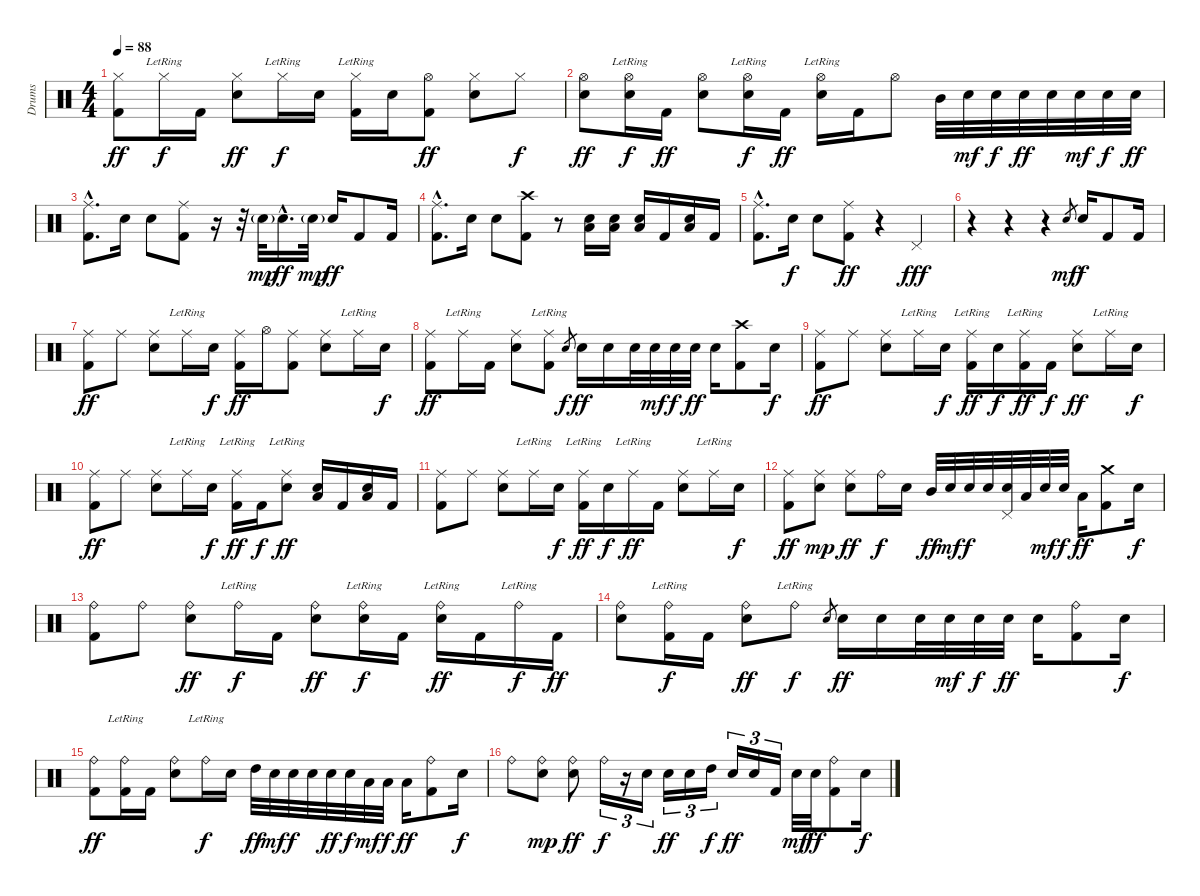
\track ("Drums" "Drums") {instrument percussion}
\staff {score}
\articulation defaults
\ts (4 4)
\tempo 88
\clef neutral
\ks c
("Hi-Hat (closed)" "Kick (hit) 2").8{dy ff} "Hi-Hat (closed)"{lr}.16{dy f} "Kick (hit) 2".16 ("Hi-Hat (closed)" "Electric Snare (hit)").8{dy ff} "Hi-Hat (closed)"{lr}.16{dy f} "Electric Snare (hit)".16 ("Hi-Hat (closed)"{lr} "Kick (hit) 2").16 "Electric Snare (hit)".16 ("Hi-Hat (open)" "Kick (hit) 2").8{dy ff} ("Hi-Hat (closed)" "Electric Snare (hit)").8 "Hi-Hat (closed)".8{dy f} |
("Hi-Hat (open)" "Electric Snare (hit)").8{dy ff} ("Hi-Hat (open)"{lr} "Electric Snare (hit)").16{dy f} "Kick (hit) 2".16{dy ff} ("Hi-Hat (open)" "Electric Snare (hit)").8 ("Hi-Hat (open)"{lr} "Electric Snare (hit)").16{dy f} "Kick (hit) 2".16{dy ff} ("Hi-Hat (open)"{lr} "Electric Snare (hit)").16 "Kick (hit) 2".16 "Hi-Hat (open)".8 "Mid Tom (hit)".32 "Electric Snare (hit)".32{dy mf} "Electric Snare (hit)".32{dy f} "Electric Snare (hit)".32{dy ff} "Electric Snare (hit)".32 "Electric Snare (hit)".32{dy mf} "Electric Snare (hit)".32{dy f} "Electric Snare (hit)".32{dy ff} |
("Ride (middle)"{hac} "Kick (hit) 2"{hac}).8{d} "Electric Snare (hit)".16 "Electric Snare (hit)".8 ("Ride (middle)" "Kick (hit) 2").8 r.16 r.32 "Electric Snare (hit)"{g}.32{dy mp} "Electric Snare (hit)"{hac}.16{d dy ff} "Electric Snare (hit)"{g}.32{dy mp} "Electric Snare (hit)".16{dy ff} "Kick (hit) 2".8 "Kick (hit) 2".16 |
("Ride (middle)"{hac} "Kick (hit) 2"{hac}).8{d} "Electric Snare (hit)".16 "Electric Snare (hit)".8 ("Crash high (hit)" "Kick (hit) 2").8 r.8 ("Electric Snare (hit)" "Low Tom (hit)").16 ("Electric Snare (hit)" "Low Tom (hit)").16 ("Electric Snare (hit)" "Low Tom (hit)").16 "Kick (hit) 2".16 ("Electric Snare (hit)" "Low Tom (hit)").16 "Kick (hit) 2".16 |
("Ride (middle)"{hac} "Kick (hit) 2"{hac}).8{d} "Electric Snare (hit)".16{dy f} "Electric Snare (hit)".8 ("Ride (middle)" "Kick (hit) 2").8{dy ff} r.4 "Pedal Hi-Hat (hit)".4{dy fff} |
r.4 r.4 r.4 "Electric Snare (hit)".8{gr dy mf} "Electric Snare (hit)".16{dy f} "Kick (hit) 2".8 "Kick (hit) 2".16 |
("Ride (middle)" "Kick (hit) 2").8{dy ff} "Ride (middle)".8 ("Ride (middle)" "Electric Snare (hit)").8 "Ride (middle)"{lr}.16 "Electric Snare (hit)".16{dy f} ("Ride (middle)" "Kick (hit) 2").16{dy ff} "Hi-Hat (open)".16 ("Ride (middle)" "Kick (hit) 2").8 ("Ride (middle)" "Electric Snare (hit)").8 "Ride (middle)"{lr}.16 "Electric Snare (hit)".16{dy f} |
("Ride (middle)" "Kick (hit) 2").8{dy ff} "Ride (middle)"{lr}.16 "Kick (hit) 2".16 ("Ride (middle)" "Electric Snare (hit)").8 ("Ride (middle)"{lr} "Kick (hit) 2").8 "Electric Snare (hit)".8{gr dy f} "Electric Snare (hit)".16{dy ff} "Electric Snare (hit)".16 "Electric Snare (hit)".32 "Electric Snare (hit)".32{dy mf} "Electric Snare (hit)".32{dy f} "Electric Snare (hit)".32{dy ff} "Electric Snare (hit)".16 ("Crash high (hit)" "Kick (hit) 2").8 "Electric Snare (hit)".16{dy f} |
("Ride (middle)" "Kick (hit) 2").8{dy ff} "Ride (middle)".8 ("Ride (middle)" "Electric Snare (hit)").8 "Ride (middle)"{lr}.16 "Electric Snare (hit)".16{dy f} ("Ride (middle)"{lr} "Kick (hit) 2").16{dy ff} "Electric Snare (hit)".16{dy f} ("Ride (middle)"{lr} "Kick (hit) 2").16{dy ff} "Kick (hit) 2".16{dy f} ("Ride (middle)" "Electric Snare (hit)").8{dy ff} "Ride (middle)"{lr}.16 "Electric Snare (hit)".16{dy f} |
("Ride (middle)" "Kick (hit) 2").8{dy ff} "Ride (middle)".8 ("Ride (middle)" "Electric Snare (hit)").8 "Ride (middle)"{lr}.16 "Electric Snare (hit)".16{dy f} ("Ride (middle)"{lr} "Kick (hit) 2").16{dy ff} "Kick (hit) 2".16{dy f} ("Ride (middle)"{lr} "Electric Snare (hit)").8{dy ff} ("Electric Snare (hit)" "Low Tom (hit)").16 "Kick (hit) 2".16 ("Electric Snare (hit)" "Low Tom (hit)").16 "Kick (hit) 2".16 |
("Ride (middle)" "Kick (hit) 2").8 "Ride (middle)".8 ("Ride (middle)" "Electric Snare (hit)").8 "Ride (middle)"{lr}.16 "Electric Snare (hit)".16{dy f} ("Ride (middle)"{lr} "Kick (hit) 2").16{dy ff} "Electric Snare (hit)".16{dy f} "Ride (middle)"{lr}.16{dy ff} "Kick (hit) 2".16 ("Ride (middle)" "Electric Snare (hit)").8 "Ride (middle)"{lr}.16 "Electric Snare (hit)".16{dy f} |
("Ride (middle)" "Kick (hit) 2").8{dy ff} ("Ride (middle)" "Electric Snare (hit)").8{dy mp} ("Ride (middle)" "Electric Snare (hit)").8{dy ff} "Ride (bell)".16{dy f} "Electric Snare (hit)".16 "Mid Tom (hit)".32{dy ff} "Electric Snare (hit)".32{dy mf} "Electric Snare (hit)".32{dy f} "Electric Snare (hit)".32 ("Electric Snare (hit)" "Pedal Hi-Hat (hit)").32 "Low Tom (hit)".32 "Electric Snare (hit)".32{dy mf} "Electric Snare (hit)".32{dy f} "Low Tom (hit)".16{dy ff} ("Crash medium (hit)" "Kick (hit) 2").8 "Electric Snare (hit)".16{dy f} |
("Ride (bell)" "Kick (hit) 2").8 "Ride (bell)".8 ("Ride (bell)" "Electric Snare (hit)").8{dy ff} "Ride (bell)"{lr}.16{dy f} "Kick (hit) 2".16 ("Ride (bell)" "Electric Snare (hit)").8{dy ff} ("Ride (bell)"{lr} "Electric Snare (hit)").16{dy f} "Kick (hit) 2".16 ("Ride (bell)"{lr} "Electric Snare (hit)").16{dy ff} "Kick (hit) 2".16 "Ride (bell)"{lr}.16{dy f} "Kick (hit) 2".16{dy ff} |
("Ride (bell)" "Electric Snare (hit)").8 ("Ride (bell)"{lr} "Kick (hit) 2").16{dy f} "Kick (hit) 2".16 ("Ride (bell)" "Electric Snare (hit)").8{dy ff} "Ride (bell)"{lr}.8{dy f} "Electric Snare (hit)".8{gr} "Electric Snare (hit)".16{dy ff} "Electric Snare (hit)".16 "Electric Snare (hit)".32 "Electric Snare (hit)".32{dy mf} "Electric Snare (hit)".32{dy f} "Electric Snare (hit)".32{dy ff} "Electric Snare (hit)".16 ("Ride (bell)" "Kick (hit) 2").8 "Electric Snare (hit)".16{dy f} |
("Ride (bell)" "Kick (hit) 2").8{dy ff} ("Ride (bell)"{lr} "Kick (hit) 2").16 "Kick (hit) 2".16 ("Ride (bell)" "Electric Snare (hit)").8 "Ride (bell)"{lr}.16{dy f} "Electric Snare (hit)".16 "High Tom (hit)".32{dy ff} "Electric Snare (hit)".32{dy mf} "Electric Snare (hit)".32{dy f} "Electric Snare (hit)".32 "Electric Snare (hit)".32{dy ff} "Electric Snare (hit)".32{dy f} "Low Tom (hit)".32{dy mf} "Low Tom (hit)".32{dy f} "Low Tom (hit)".16{dy ff} ("Ride (bell)" "Kick (hit) 2").8 "Electric Snare (hit)".16{dy f} |
"Ride (bell)".8 ("Ride (bell)" "Electric Snare (hit)").8{dy mp} ("Ride (bell)" "Electric Snare (hit)").8{dy ff} "Ride (bell)".16{tu (3 2) dy f} r.16{tu (3 2)} "Electric Snare (hit)".16{tu (3 2)} "Electric Snare (hit)".16{tu (3 2) dy ff} "Electric Snare (hit)".16{tu (3 2)} "High Tom (hit)".16{tu (3 2) dy f} "Electric Snare (hit)".16{tu (3 2) dy ff} "Electric Snare (hit)".16{tu (3 2)} "Kick (hit) 2".16{tu (3 2)} "Electric Snare (hit)".32{dy mf} "Electric Snare (hit)".32{dy ff} ("Ride (bell)" "Kick (hit) 2").8 "Electric Snare (hit)".16{dy f}
